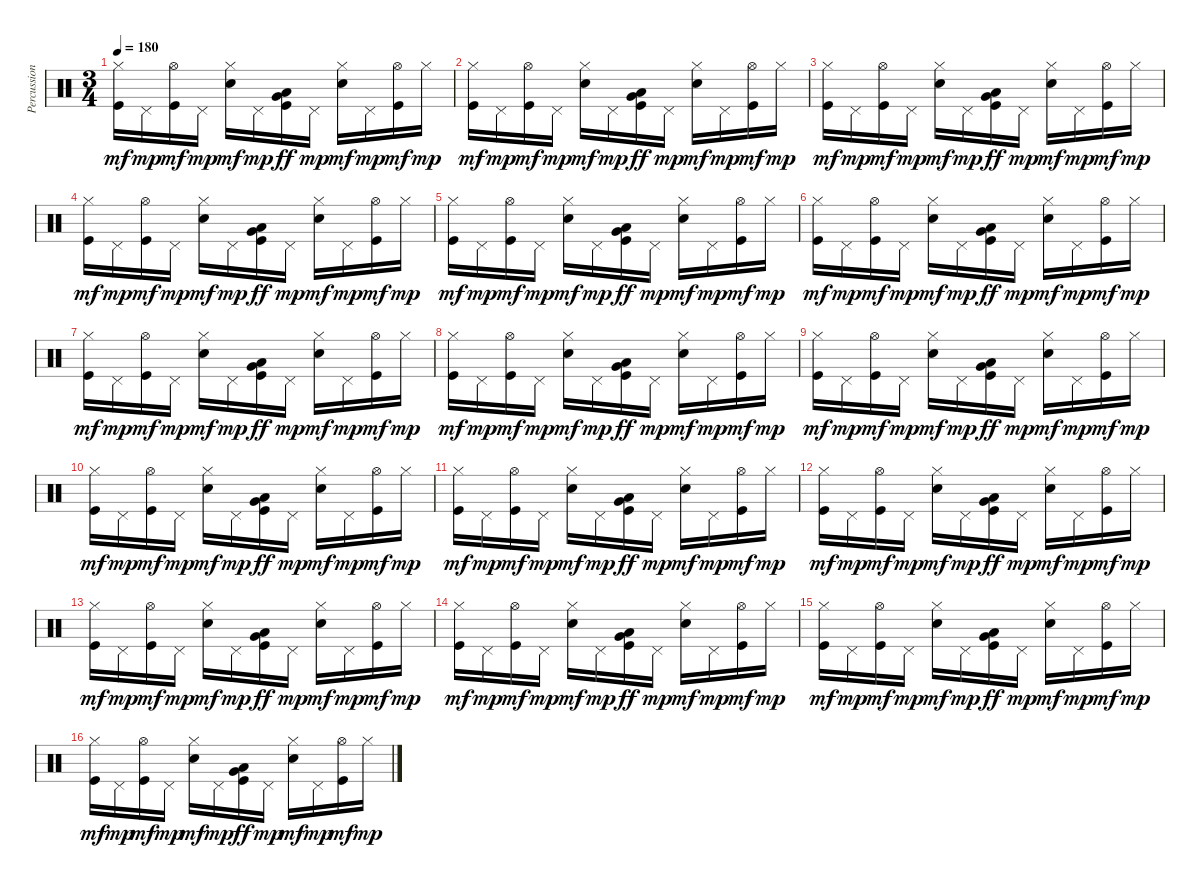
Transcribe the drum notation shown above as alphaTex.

\track ("Percussion" "Percussion") {instrument percussion}
\staff {score}
\articulation defaults
\ts (3 4)
\tempo 180
\clef neutral
\ks c
("Hi-Hat (closed)" "Kick (hit)").16{dy mf} "Pedal Hi-Hat (hit)".16{dy mp} ("Hi-Hat (open)" "Kick (hit)").16{dy mf} "Pedal Hi-Hat (hit)".16{dy mp} ("Hi-Hat (closed)" "Snare (hit) 2").16{dy mf} "Pedal Hi-Hat (hit)".16{dy mp} ("Low Tom (hit)" "Very Low Tom (hit)" "Kick (hit)").16{dy ff} "Pedal Hi-Hat (hit)".16{dy mp} ("Hi-Hat (closed)" "Snare (hit) 2").16{dy mf} "Pedal Hi-Hat (hit)".16{dy mp} ("Hi-Hat (open)" "Kick (hit)").16{dy mf} "Hi-Hat (closed)".16{dy mp} |
("Hi-Hat (closed)" "Kick (hit)").16{dy mf} "Pedal Hi-Hat (hit)".16{dy mp} ("Hi-Hat (open)" "Kick (hit)").16{dy mf} "Pedal Hi-Hat (hit)".16{dy mp} ("Hi-Hat (closed)" "Snare (hit) 2").16{dy mf} "Pedal Hi-Hat (hit)".16{dy mp} ("Low Tom (hit)" "Very Low Tom (hit)" "Kick (hit)").16{dy ff} "Pedal Hi-Hat (hit)".16{dy mp} ("Hi-Hat (closed)" "Snare (hit) 2").16{dy mf} "Pedal Hi-Hat (hit)".16{dy mp} ("Hi-Hat (open)" "Kick (hit)").16{dy mf} "Hi-Hat (closed)".16{dy mp} |
("Hi-Hat (closed)" "Kick (hit)").16{dy mf} "Pedal Hi-Hat (hit)".16{dy mp} ("Hi-Hat (open)" "Kick (hit)").16{dy mf} "Pedal Hi-Hat (hit)".16{dy mp} ("Hi-Hat (closed)" "Snare (hit) 2").16{dy mf} "Pedal Hi-Hat (hit)".16{dy mp} ("Low Tom (hit)" "Very Low Tom (hit)" "Kick (hit)").16{dy ff} "Pedal Hi-Hat (hit)".16{dy mp} ("Hi-Hat (closed)" "Snare (hit) 2").16{dy mf} "Pedal Hi-Hat (hit)".16{dy mp} ("Hi-Hat (open)" "Kick (hit)").16{dy mf} "Hi-Hat (closed)".16{dy mp} |
("Hi-Hat (closed)" "Kick (hit)").16{dy mf} "Pedal Hi-Hat (hit)".16{dy mp} ("Hi-Hat (open)" "Kick (hit)").16{dy mf} "Pedal Hi-Hat (hit)".16{dy mp} ("Hi-Hat (closed)" "Snare (hit) 2").16{dy mf} "Pedal Hi-Hat (hit)".16{dy mp} ("Low Tom (hit)" "Very Low Tom (hit)" "Kick (hit)").16{dy ff} "Pedal Hi-Hat (hit)".16{dy mp} ("Hi-Hat (closed)" "Snare (hit) 2").16{dy mf} "Pedal Hi-Hat (hit)".16{dy mp} ("Hi-Hat (open)" "Kick (hit)").16{dy mf} "Hi-Hat (closed)".16{dy mp} |
("Hi-Hat (closed)" "Kick (hit)").16{dy mf} "Pedal Hi-Hat (hit)".16{dy mp} ("Hi-Hat (open)" "Kick (hit)").16{dy mf} "Pedal Hi-Hat (hit)".16{dy mp} ("Hi-Hat (closed)" "Snare (hit) 2").16{dy mf} "Pedal Hi-Hat (hit)".16{dy mp} ("Low Tom (hit)" "Very Low Tom (hit)" "Kick (hit)").16{dy ff} "Pedal Hi-Hat (hit)".16{dy mp} ("Hi-Hat (closed)" "Snare (hit) 2").16{dy mf} "Pedal Hi-Hat (hit)".16{dy mp} ("Hi-Hat (open)" "Kick (hit)").16{dy mf} "Hi-Hat (closed)".16{dy mp} |
("Hi-Hat (closed)" "Kick (hit)").16{dy mf} "Pedal Hi-Hat (hit)".16{dy mp} ("Hi-Hat (open)" "Kick (hit)").16{dy mf} "Pedal Hi-Hat (hit)".16{dy mp} ("Hi-Hat (closed)" "Snare (hit) 2").16{dy mf} "Pedal Hi-Hat (hit)".16{dy mp} ("Low Tom (hit)" "Very Low Tom (hit)" "Kick (hit)").16{dy ff} "Pedal Hi-Hat (hit)".16{dy mp} ("Hi-Hat (closed)" "Snare (hit) 2").16{dy mf} "Pedal Hi-Hat (hit)".16{dy mp} ("Hi-Hat (open)" "Kick (hit)").16{dy mf} "Hi-Hat (closed)".16{dy mp} |
("Hi-Hat (closed)" "Kick (hit)").16{dy mf} "Pedal Hi-Hat (hit)".16{dy mp} ("Hi-Hat (open)" "Kick (hit)").16{dy mf} "Pedal Hi-Hat (hit)".16{dy mp} ("Hi-Hat (closed)" "Snare (hit) 2").16{dy mf} "Pedal Hi-Hat (hit)".16{dy mp} ("Low Tom (hit)" "Very Low Tom (hit)" "Kick (hit)").16{dy ff} "Pedal Hi-Hat (hit)".16{dy mp} ("Hi-Hat (closed)" "Snare (hit) 2").16{dy mf} "Pedal Hi-Hat (hit)".16{dy mp} ("Hi-Hat (open)" "Kick (hit)").16{dy mf} "Hi-Hat (closed)".16{dy mp} |
("Hi-Hat (closed)" "Kick (hit)").16{dy mf} "Pedal Hi-Hat (hit)".16{dy mp} ("Hi-Hat (open)" "Kick (hit)").16{dy mf} "Pedal Hi-Hat (hit)".16{dy mp} ("Hi-Hat (closed)" "Snare (hit) 2").16{dy mf} "Pedal Hi-Hat (hit)".16{dy mp} ("Low Tom (hit)" "Very Low Tom (hit)" "Kick (hit)").16{dy ff} "Pedal Hi-Hat (hit)".16{dy mp} ("Hi-Hat (closed)" "Snare (hit) 2").16{dy mf} "Pedal Hi-Hat (hit)".16{dy mp} ("Hi-Hat (open)" "Kick (hit)").16{dy mf} "Hi-Hat (closed)".16{dy mp} |
("Hi-Hat (closed)" "Kick (hit)").16{dy mf} "Pedal Hi-Hat (hit)".16{dy mp} ("Hi-Hat (open)" "Kick (hit)").16{dy mf} "Pedal Hi-Hat (hit)".16{dy mp} ("Hi-Hat (closed)" "Snare (hit) 2").16{dy mf} "Pedal Hi-Hat (hit)".16{dy mp} ("Low Tom (hit)" "Very Low Tom (hit)" "Kick (hit)").16{dy ff} "Pedal Hi-Hat (hit)".16{dy mp} ("Hi-Hat (closed)" "Snare (hit) 2").16{dy mf} "Pedal Hi-Hat (hit)".16{dy mp} ("Hi-Hat (open)" "Kick (hit)").16{dy mf} "Hi-Hat (closed)".16{dy mp} |
("Hi-Hat (closed)" "Kick (hit)").16{dy mf} "Pedal Hi-Hat (hit)".16{dy mp} ("Hi-Hat (open)" "Kick (hit)").16{dy mf} "Pedal Hi-Hat (hit)".16{dy mp} ("Hi-Hat (closed)" "Snare (hit) 2").16{dy mf} "Pedal Hi-Hat (hit)".16{dy mp} ("Low Tom (hit)" "Very Low Tom (hit)" "Kick (hit)").16{dy ff} "Pedal Hi-Hat (hit)".16{dy mp} ("Hi-Hat (closed)" "Snare (hit) 2").16{dy mf} "Pedal Hi-Hat (hit)".16{dy mp} ("Hi-Hat (open)" "Kick (hit)").16{dy mf} "Hi-Hat (closed)".16{dy mp} |
("Hi-Hat (closed)" "Kick (hit)").16{dy mf} "Pedal Hi-Hat (hit)".16{dy mp} ("Hi-Hat (open)" "Kick (hit)").16{dy mf} "Pedal Hi-Hat (hit)".16{dy mp} ("Hi-Hat (closed)" "Snare (hit) 2").16{dy mf} "Pedal Hi-Hat (hit)".16{dy mp} ("Low Tom (hit)" "Very Low Tom (hit)" "Kick (hit)").16{dy ff} "Pedal Hi-Hat (hit)".16{dy mp} ("Hi-Hat (closed)" "Snare (hit) 2").16{dy mf} "Pedal Hi-Hat (hit)".16{dy mp} ("Hi-Hat (open)" "Kick (hit)").16{dy mf} "Hi-Hat (closed)".16{dy mp} |
("Hi-Hat (closed)" "Kick (hit)").16{dy mf} "Pedal Hi-Hat (hit)".16{dy mp} ("Hi-Hat (open)" "Kick (hit)").16{dy mf} "Pedal Hi-Hat (hit)".16{dy mp} ("Hi-Hat (closed)" "Snare (hit) 2").16{dy mf} "Pedal Hi-Hat (hit)".16{dy mp} ("Low Tom (hit)" "Very Low Tom (hit)" "Kick (hit)").16{dy ff} "Pedal Hi-Hat (hit)".16{dy mp} ("Hi-Hat (closed)" "Snare (hit) 2").16{dy mf} "Pedal Hi-Hat (hit)".16{dy mp} ("Hi-Hat (open)" "Kick (hit)").16{dy mf} "Hi-Hat (closed)".16{dy mp} |
("Hi-Hat (closed)" "Kick (hit)").16{dy mf} "Pedal Hi-Hat (hit)".16{dy mp} ("Hi-Hat (open)" "Kick (hit)").16{dy mf} "Pedal Hi-Hat (hit)".16{dy mp} ("Hi-Hat (closed)" "Snare (hit) 2").16{dy mf} "Pedal Hi-Hat (hit)".16{dy mp} ("Low Tom (hit)" "Very Low Tom (hit)" "Kick (hit)").16{dy ff} "Pedal Hi-Hat (hit)".16{dy mp} ("Hi-Hat (closed)" "Snare (hit) 2").16{dy mf} "Pedal Hi-Hat (hit)".16{dy mp} ("Hi-Hat (open)" "Kick (hit)").16{dy mf} "Hi-Hat (closed)".16{dy mp} |
("Hi-Hat (closed)" "Kick (hit)").16{dy mf} "Pedal Hi-Hat (hit)".16{dy mp} ("Hi-Hat (open)" "Kick (hit)").16{dy mf} "Pedal Hi-Hat (hit)".16{dy mp} ("Hi-Hat (closed)" "Snare (hit) 2").16{dy mf} "Pedal Hi-Hat (hit)".16{dy mp} ("Low Tom (hit)" "Very Low Tom (hit)" "Kick (hit)").16{dy ff} "Pedal Hi-Hat (hit)".16{dy mp} ("Hi-Hat (closed)" "Snare (hit) 2").16{dy mf} "Pedal Hi-Hat (hit)".16{dy mp} ("Hi-Hat (open)" "Kick (hit)").16{dy mf} "Hi-Hat (closed)".16{dy mp} |
("Hi-Hat (closed)" "Kick (hit)").16{dy mf} "Pedal Hi-Hat (hit)".16{dy mp} ("Hi-Hat (open)" "Kick (hit)").16{dy mf} "Pedal Hi-Hat (hit)".16{dy mp} ("Hi-Hat (closed)" "Snare (hit) 2").16{dy mf} "Pedal Hi-Hat (hit)".16{dy mp} ("Low Tom (hit)" "Very Low Tom (hit)" "Kick (hit)").16{dy ff} "Pedal Hi-Hat (hit)".16{dy mp} ("Hi-Hat (closed)" "Snare (hit) 2").16{dy mf} "Pedal Hi-Hat (hit)".16{dy mp} ("Hi-Hat (open)" "Kick (hit)").16{dy mf} "Hi-Hat (closed)".16{dy mp} |
("Hi-Hat (closed)" "Kick (hit)").16{dy mf} "Pedal Hi-Hat (hit)".16{dy mp} ("Hi-Hat (open)" "Kick (hit)").16{dy mf} "Pedal Hi-Hat (hit)".16{dy mp} ("Hi-Hat (closed)" "Snare (hit) 2").16{dy mf} "Pedal Hi-Hat (hit)".16{dy mp} ("Low Tom (hit)" "Very Low Tom (hit)" "Kick (hit)").16{dy ff} "Pedal Hi-Hat (hit)".16{dy mp} ("Hi-Hat (closed)" "Snare (hit) 2").16{dy mf} "Pedal Hi-Hat (hit)".16{dy mp} ("Hi-Hat (open)" "Kick (hit)").16{dy mf} "Hi-Hat (closed)".16{dy mp}
